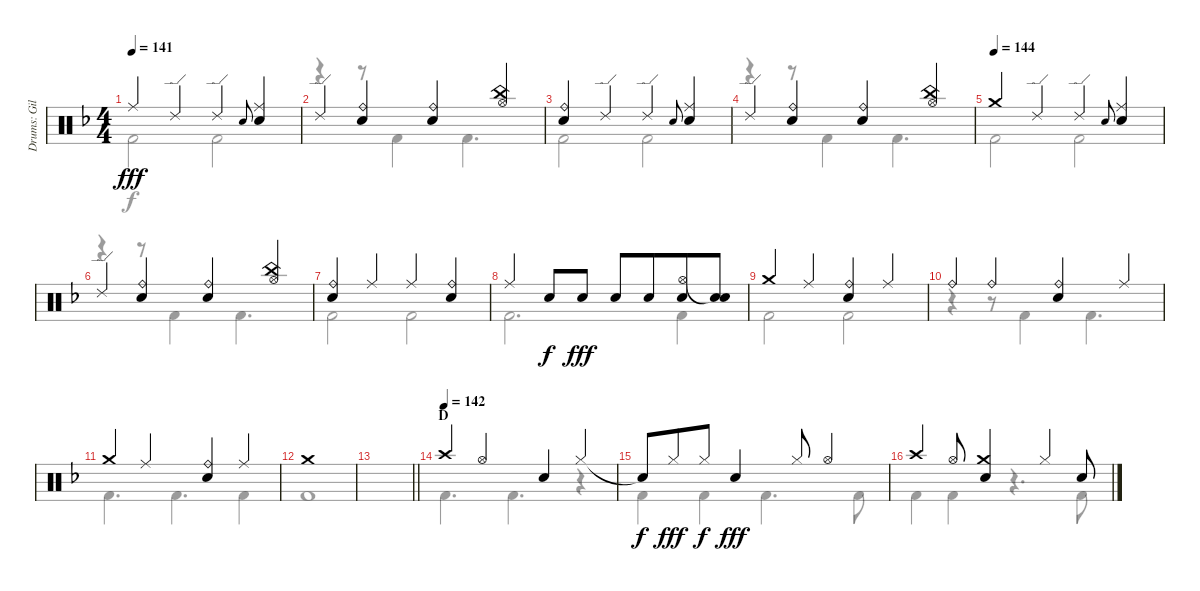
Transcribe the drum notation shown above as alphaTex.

\track ("Drums: Gil" "Drums: Gil") {instrument percussion}
\staff {score}
\articulation defaults
\voice
\ts (4 4)
\tempo 141
\clef neutral
\ks f "Ride (middle)".4{dy fff} "Ride (edge) 2".4 "Ride (edge) 2".4 "Electric Snare (hit)".8{gr onbeat}
("Ride (middle)" "Snare (hit) 2").4 |
"Ride (edge) 2".4 ("Ride (bell)" "Snare (hit) 2").4 ("Ride (bell)" "Snare (hit) 2").4 ("China (hit)" "Hi-Hat (open)").4 |
("Ride (bell)" "Snare (hit) 2").4 "Ride (edge) 2".4 "Ride (edge) 2".4 "Electric Snare (hit)".8{gr onbeat} ("Ride (middle)" "Snare (hit) 2").4 |
"Ride (edge) 2".4 ("Ride (bell)" "Snare (hit) 2").4 ("Ride (bell)" "Snare (hit) 2").4 ("China (hit)" "Hi-Hat (open)").4 |
\tempo (144)
"Crash medium (hit)".4 "Ride (edge) 2".4 "Ride (edge) 2".4 "Electric Snare (hit)".8{gr onbeat} ("Ride (middle)" "Snare (hit) 2").4 |
"Ride (edge) 2".4 ("Ride (bell)" "Snare (hit) 2").4 ("Ride (bell)" "Snare (hit) 2").4 ("China (hit)" "Hi-Hat (open)").4 |
("Ride (bell)" "Snare (hit) 2").4 "Ride (middle)".4 "Ride (middle)".4 ("Ride (bell)" "Snare (hit) 2").4 |
"Ride (middle)".4 "Snare (hit) 2".8{dy f} "Snare (hit) 2".8{dy fff} "Snare (hit) 2".8 "Snare (hit) 2".8{beam merge} ("Hi-Hat (open)" "Snare (hit) 2").8 ("Snare (hit)"{t} "Snare (hit) 2").8 |
"Crash medium (hit)".4 "Ride (middle)".4 ("Ride (bell)" "Snare (hit) 2").4 "Ride (middle)".4 |
"Ride (bell)".4 "Ride (bell)".4 ("Ride (bell)" "Snare (hit) 2").4 "Ride (middle)".4 |
"Crash medium (hit)".4 "Ride (middle)".4 ("Ride (bell)" "Snare (hit) 2").4 "Ride (middle)".4 |
"Crash medium (hit)".1 |
\barLineRight lightlight
|
\section ("" "D")
\tempo (142)
"Crash high (hit)".4 "Hi-Hat (open)".4 "Snare (hit) 2".4 "Hi-Hat (closed)".4 |
"Snare (hit)"{t}.8{dy f} "Hi-Hat (closed)".8{dy fff beam merge} "Hi-Hat (closed)".8{dy f} "Snare (hit) 2".4{dy fff} "Hi-Hat (closed)".8 "Hi-Hat (open)".4 |
"Crash high (hit)".4 "Hi-Hat (open)".8 ("Crash medium (hit)" "Snare (hit) 2").4 "Hi-Hat (closed)".4 "Snare (hit) 2".8
\voice
\clef neutral
\ottava regular
\simile none
\ks f "Kick (hit) 2".2{dy f} "Kick (hit) 2".2
|
r.4 r.8 "Kick (hit) 2".4 "Kick (hit) 2".4{d} |
"Kick (hit) 2".2 "Kick (hit) 2".2 |
r.4 r.8 "Kick (hit) 2".4 "Kick (hit) 2".4{d} |
"Kick (hit) 2".2 "Kick (hit) 2".2 |
r.4 r.8 "Kick (hit) 2".4 "Kick (hit) 2".4{d} |
"Kick (hit) 2".2 "Kick (hit) 2".2 |
"Kick (hit) 2".2{d} "Kick (hit) 2".4 |
"Kick (hit) 2".2 "Kick (hit) 2".2 |
r.4 r.8 "Kick (hit) 2".4 "Kick (hit) 2".4{d} |
"Kick (hit) 2".4{d} "Kick (hit) 2".4{d} "Kick (hit) 2".4 |
"Kick (hit) 2".1 |
\barLineRight lightlight
|
"Kick (hit) 2".4{d} "Kick (hit) 2".4{d} r.4 |
"Kick (hit) 2".4 "Kick (hit) 2".4 "Kick (hit) 2".4{d} "Kick (hit) 2".8 |
"Kick (hit) 2".4 "Kick (hit) 2".4 r.4{d} "Kick (hit) 2".8
